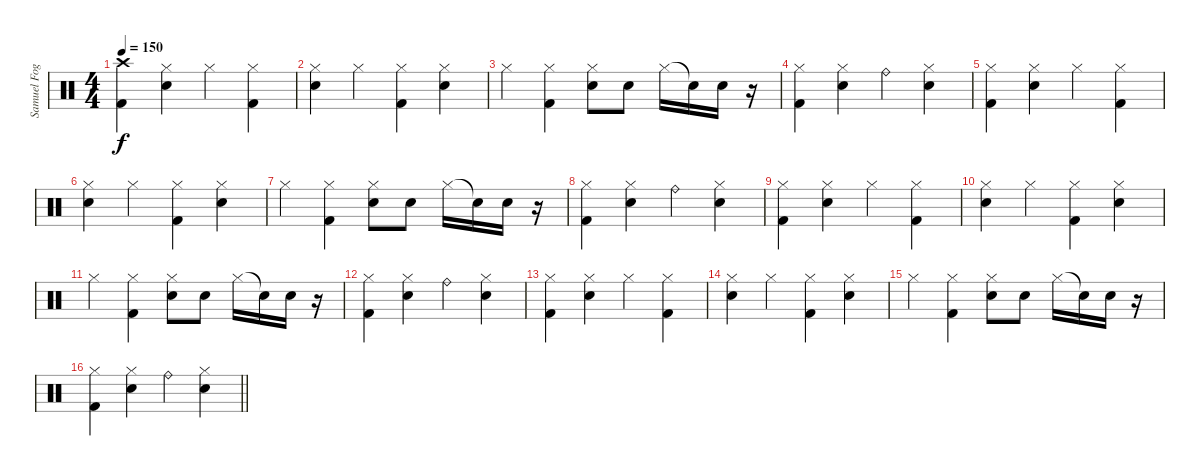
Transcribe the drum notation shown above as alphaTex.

\track ("Samuel Fogarino" "Samuel Fog") {instrument percussion}
\staff {score}
\articulation defaults
\ts (4 4)
\tempo 150
\clef neutral
\ks c
("Crash high (hit)" "Kick (hit) 2").4{dy f} ("Electric Snare (hit)" "Hi-Hat (closed)").4 "Hi-Hat (closed)".4 ("Kick (hit) 2" "Hi-Hat (closed)").4 |
("Electric Snare (hit)" "Hi-Hat (closed)").4 "Hi-Hat (closed)".4 ("Kick (hit) 2" "Hi-Hat (closed)").4 ("Electric Snare (hit)" "Hi-Hat (closed)").4 |
"Hi-Hat (closed)".4 ("Kick (hit) 2" "Hi-Hat (closed)").4 ("Electric Snare (hit)" "Hi-Hat (closed)").8 "Electric Snare (hit)".8 "Hi-Hat (closed)".16 "Snare (hit)"{t}.16 "Electric Snare (hit)".16 r.16 |
("Hi-Hat (closed)" "Kick (hit) 2").4 ("Electric Snare (hit)" "Hi-Hat (closed)").4 "Ride (bell)".4 ("Electric Snare (hit)" "Hi-Hat (closed)").4 |
("Hi-Hat (closed)" "Kick (hit) 2").4 ("Electric Snare (hit)" "Hi-Hat (closed)").4 "Hi-Hat (closed)".4 ("Kick (hit) 2" "Hi-Hat (closed)").4 |
("Electric Snare (hit)" "Hi-Hat (closed)").4 "Hi-Hat (closed)".4 ("Kick (hit) 2" "Hi-Hat (closed)").4 ("Electric Snare (hit)" "Hi-Hat (closed)").4 |
"Hi-Hat (closed)".4 ("Kick (hit) 2" "Hi-Hat (closed)").4 ("Electric Snare (hit)" "Hi-Hat (closed)").8 "Electric Snare (hit)".8 "Hi-Hat (closed)".16 "Snare (hit)"{t}.16 "Electric Snare (hit)".16 r.16 |
("Hi-Hat (closed)" "Kick (hit) 2").4 ("Electric Snare (hit)" "Hi-Hat (closed)").4 "Ride (bell)".4 ("Electric Snare (hit)" "Hi-Hat (closed)").4 |
("Hi-Hat (closed)" "Kick (hit) 2").4 ("Electric Snare (hit)" "Hi-Hat (closed)").4 "Hi-Hat (closed)".4 ("Kick (hit) 2" "Hi-Hat (closed)").4 |
("Electric Snare (hit)" "Hi-Hat (closed)").4 "Hi-Hat (closed)".4 ("Kick (hit) 2" "Hi-Hat (closed)").4 ("Electric Snare (hit)" "Hi-Hat (closed)").4 |
"Hi-Hat (closed)".4 ("Kick (hit) 2" "Hi-Hat (closed)").4 ("Electric Snare (hit)" "Hi-Hat (closed)").8 "Electric Snare (hit)".8 "Hi-Hat (closed)".16 "Snare (hit)"{t}.16 "Electric Snare (hit)".16 r.16 |
("Hi-Hat (closed)" "Kick (hit) 2").4 ("Electric Snare (hit)" "Hi-Hat (closed)").4 "Ride (bell)".4 ("Electric Snare (hit)" "Hi-Hat (closed)").4 |
("Hi-Hat (closed)" "Kick (hit) 2").4 ("Electric Snare (hit)" "Hi-Hat (closed)").4 "Hi-Hat (closed)".4 ("Kick (hit) 2" "Hi-Hat (closed)").4 |
("Electric Snare (hit)" "Hi-Hat (closed)").4 "Hi-Hat (closed)".4 ("Kick (hit) 2" "Hi-Hat (closed)").4 ("Electric Snare (hit)" "Hi-Hat (closed)").4 |
"Hi-Hat (closed)".4 ("Kick (hit) 2" "Hi-Hat (closed)").4 ("Electric Snare (hit)" "Hi-Hat (closed)").8 "Electric Snare (hit)".8 "Hi-Hat (closed)".16 "Snare (hit)"{t}.16 "Electric Snare (hit)".16 r.16 |
\barLineRight lightlight
("Hi-Hat (closed)" "Kick (hit) 2").4 ("Electric Snare (hit)" "Hi-Hat (closed)").4 "Ride (bell)".4 ("Electric Snare (hit)" "Hi-Hat (closed)").4
